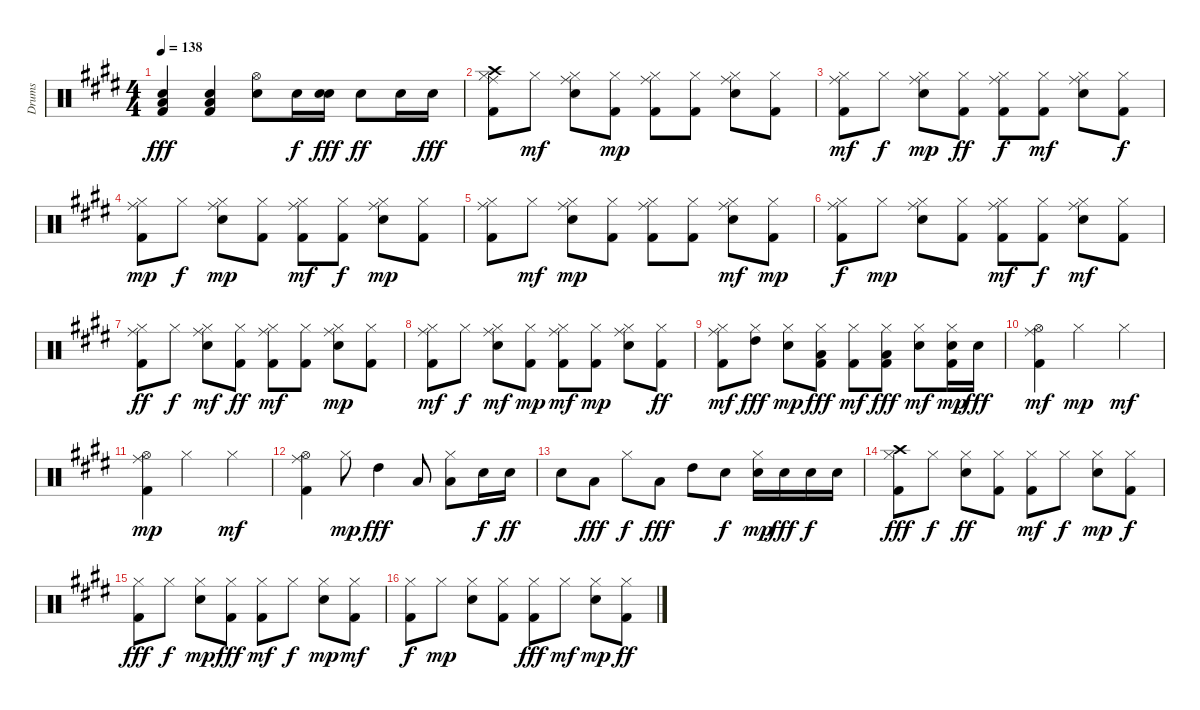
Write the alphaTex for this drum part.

\track ("Drums" "Drums") {instrument percussion}
\staff {score}
\articulation defaults
\ts (4 4)
\tempo 138
\clef neutral
\ks e
("Kick (hit) 2" "Snare (hit) 2" "Low Tom (hit)").4{dy fff} ("Kick (hit) 2" "Snare (hit) 2" "Low Floor Tom (hit)").4 ("Snare (hit) 2" "Hi-Hat (open)").8 "Snare (hit) 2".16{dy f} ("Snare (hit) 2" "Snare (hit) 2").16{dy fff} "Snare (hit) 2".8{dy ff} "Snare (hit) 2".16 "Snare (hit) 2".16{dy fff} |
("Kick (hit) 2" "Hi-Hat (closed)" "Crash high (hit)" "Ride (middle)").8 "Hi-Hat (closed)".8{dy mf} ("Snare (hit) 2" "Hi-Hat (closed)" "Ride (middle)").8 ("Kick (hit) 2" "Hi-Hat (closed)").8{dy mp} ("Kick (hit) 2" "Hi-Hat (closed)" "Ride (middle)").8 ("Kick (hit) 2" "Hi-Hat (closed)").8 ("Snare (hit) 2" "Hi-Hat (closed)" "Ride (middle)").8 ("Kick (hit) 2" "Hi-Hat (closed)").8 |
("Kick (hit) 2" "Hi-Hat (closed)" "Ride (middle)").8{dy mf} "Hi-Hat (closed)".8{dy f} ("Snare (hit) 2" "Hi-Hat (closed)" "Ride (middle)").8{dy mp} ("Kick (hit) 2" "Hi-Hat (closed)").8{dy ff} ("Kick (hit) 2" "Hi-Hat (closed)" "Ride (middle)").8{dy f} ("Kick (hit) 2" "Hi-Hat (closed)").8{dy mf} ("Snare (hit) 2" "Hi-Hat (closed)" "Ride (middle)").8 ("Kick (hit) 2" "Hi-Hat (closed)").8{dy f} |
("Kick (hit) 2" "Hi-Hat (closed)" "Ride (middle)").8{dy mp} "Hi-Hat (closed)".8{dy f} ("Snare (hit) 2" "Hi-Hat (closed)" "Ride (middle)").8{dy mp} ("Kick (hit) 2" "Hi-Hat (closed)").8 ("Kick (hit) 2" "Hi-Hat (closed)" "Ride (middle)").8{dy mf} ("Kick (hit) 2" "Hi-Hat (closed)").8{dy f} ("Snare (hit) 2" "Hi-Hat (closed)" "Ride (middle)").8{dy mp} ("Kick (hit) 2" "Hi-Hat (closed)").8 |
("Kick (hit) 2" "Hi-Hat (closed)" "Ride (middle)").8 "Hi-Hat (closed)".8{dy mf} ("Snare (hit) 2" "Hi-Hat (closed)" "Ride (middle)").8{dy mp} ("Kick (hit) 2" "Hi-Hat (closed)").8 ("Kick (hit) 2" "Hi-Hat (closed)" "Ride (middle)").8 ("Kick (hit) 2" "Hi-Hat (closed)").8 ("Snare (hit) 2" "Hi-Hat (closed)" "Ride (middle)").8{dy mf} ("Kick (hit) 2" "Hi-Hat (closed)").8{dy mp} |
("Kick (hit) 2" "Hi-Hat (closed)" "Ride (middle)").8{dy f} "Hi-Hat (closed)".8{dy mp} ("Snare (hit) 2" "Hi-Hat (closed)" "Ride (middle)").8 ("Kick (hit) 2" "Hi-Hat (closed)").8 ("Kick (hit) 2" "Hi-Hat (closed)" "Ride (middle)").8{dy mf} ("Kick (hit) 2" "Hi-Hat (closed)").8{dy f} ("Snare (hit) 2" "Hi-Hat (closed)" "Ride (middle)").8{dy mf} ("Kick (hit) 2" "Hi-Hat (closed)").8 |
("Kick (hit) 2" "Hi-Hat (closed)" "Ride (middle)").8{dy ff} "Hi-Hat (closed)".8{dy f} ("Snare (hit) 2" "Hi-Hat (closed)" "Ride (middle)").8{dy mf} ("Kick (hit) 2" "Hi-Hat (closed)").8{dy ff} ("Kick (hit) 2" "Hi-Hat (closed)" "Ride (middle)").8{dy mf} ("Kick (hit) 2" "Hi-Hat (closed)").8 ("Snare (hit) 2" "Hi-Hat (closed)" "Ride (middle)").8{dy mp} ("Kick (hit) 2" "Hi-Hat (closed)").8 |
("Kick (hit) 2" "Hi-Hat (closed)" "Ride (middle)").8{dy mf} "Hi-Hat (closed)".8{dy f} ("Snare (hit) 2" "Hi-Hat (closed)" "Ride (middle)").8{dy mf} ("Kick (hit) 2" "Hi-Hat (closed)").8{dy mp} ("Kick (hit) 2" "Hi-Hat (closed)" "Ride (middle)").8{dy mf} ("Kick (hit) 2" "Hi-Hat (closed)").8{dy mp} ("Snare (hit) 2" "Hi-Hat (closed)" "Ride (middle)").8 ("Kick (hit) 2" "Hi-Hat (closed)").8{dy ff} |
("Kick (hit) 2" "Hi-Hat (closed)" "Ride (middle)").8{dy mf} ("Hi-Hat (closed)" "High Tom (hit)").8{dy fff} ("Snare (hit) 2" "Hi-Hat (closed)").8{dy mp} ("Kick (hit) 2" "Hi-Hat (closed)" "Low Tom (hit)").8{dy fff} ("Kick (hit) 2" "Hi-Hat (closed)").8{dy mf} ("Kick (hit) 2" "Low Floor Tom (hit)" "Hi-Hat (closed)").8{dy fff} ("Snare (hit) 2" "Hi-Hat (closed)").8{dy mf} ("Kick (hit) 2" "Snare (hit) 2" "Hi-Hat (closed)").16{dy mp} "Snare (hit) 2".16{dy fff} |
("Kick (hit) 2" "Hi-Hat (open)" "Ride (middle)").4{dy mf} "Hi-Hat (closed)".2{dy mp} "Hi-Hat (closed)".4{dy mf} |
("Kick (hit) 2" "Hi-Hat (open)" "Ride (middle)").4{dy mp} "Hi-Hat (closed)".2 "Hi-Hat (closed)".4{dy mf} |
("Kick (hit) 2" "Hi-Hat (open)" "Ride (middle)").4 "Hi-Hat (closed)".8{dy mp} "High Tom (hit)".4{dy fff} "Low Tom (hit)".8 ("Low Floor Tom (hit)" "Hi-Hat (closed)").8 "Snare (hit) 2".16{dy f} "Snare (hit) 2".16{dy ff} |
"Snare (hit) 2".8 "Low Floor Tom (hit)".8{dy fff} "Hi-Hat (closed)".8{dy f} "Low Tom (hit)".8{dy fff} "High Tom (hit)".8 "Snare (hit) 2".8{dy f} ("Snare (hit) 2" "Hi-Hat (closed)").16{dy mp} "Snare (hit) 2".16{dy fff} "Snare (hit) 2".16{dy f} "Snare (hit) 2".16 |
("Kick (hit) 2" "Hi-Hat (closed)" "Crash high (hit)").8{dy fff} "Hi-Hat (closed)".8{dy f} ("Snare (hit) 2" "Hi-Hat (closed)").8{dy ff} ("Kick (hit) 2" "Hi-Hat (closed)").8 ("Kick (hit) 2" "Hi-Hat (closed)").8{dy mf} "Hi-Hat (closed)".8{dy f} ("Snare (hit) 2" "Hi-Hat (closed)").8{dy mp} ("Kick (hit) 2" "Hi-Hat (closed)").8{dy f} |
("Kick (hit) 2" "Hi-Hat (closed)").8{dy fff} "Hi-Hat (closed)".8{dy f} ("Snare (hit) 2" "Hi-Hat (closed)").8{dy mp} ("Kick (hit) 2" "Hi-Hat (closed)").8{dy fff} ("Kick (hit) 2" "Hi-Hat (closed)").8{dy mf} "Hi-Hat (closed)".8{dy f} ("Snare (hit) 2" "Hi-Hat (closed)").8{dy mp} ("Kick (hit) 2" "Hi-Hat (closed)").8{dy mf} |
("Kick (hit) 2" "Hi-Hat (closed)").8{dy f} "Hi-Hat (closed)".8{dy mp} ("Snare (hit) 2" "Hi-Hat (closed)").8 ("Kick (hit) 2" "Hi-Hat (closed)").8 ("Kick (hit) 2" "Hi-Hat (closed)").8{dy fff} "Hi-Hat (closed)".8{dy mf} ("Snare (hit) 2" "Hi-Hat (closed)").8{dy mp} ("Kick (hit) 2" "Hi-Hat (closed)").8{dy ff}
